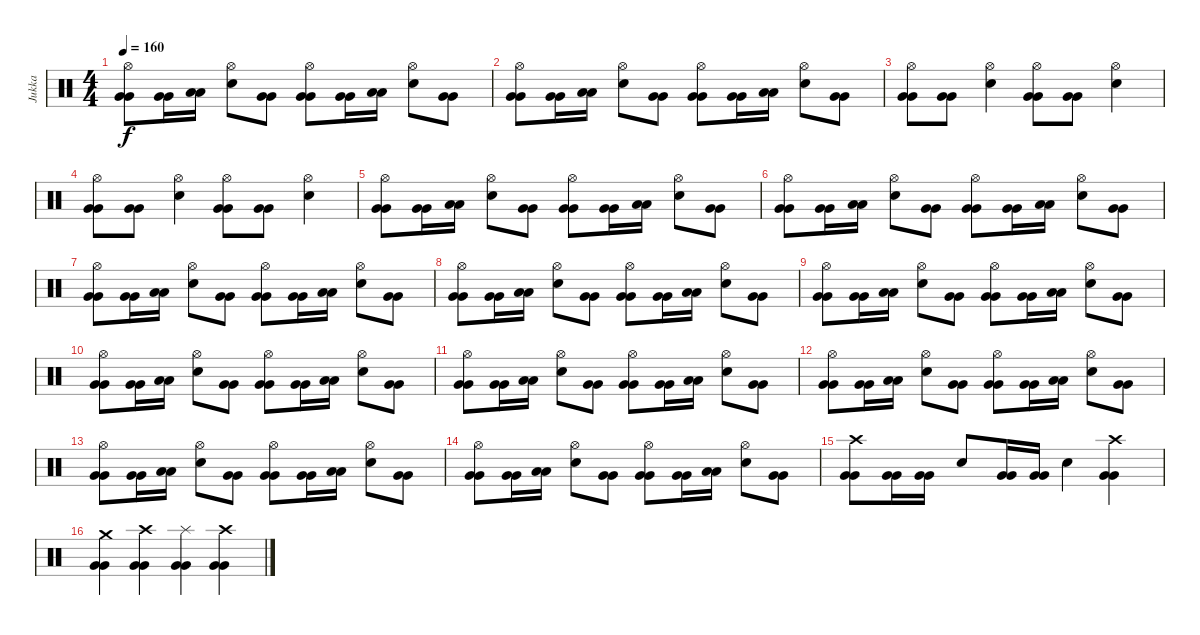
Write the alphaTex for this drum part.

\track ("Jukka" "Jukka") {instrument percussion}
\staff {score}
\articulation defaults
\ts (4 4)
\tempo 160
\clef neutral
\ks c
("Hi-Hat (open)" "Very Low Tom (hit)" "Very Low Tom (hit)").8{dy f} ("Very Low Tom (hit)" "Very Low Tom (hit)").16 ("Low Floor Tom (hit)" "Low Floor Tom (hit)").16 ("Hi-Hat (open)" "Electric Snare (hit)").8 ("Very Low Tom (hit)" "Very Low Tom (hit)").8 ("Hi-Hat (open)" "Very Low Tom (hit)" "Very Low Tom (hit)").8 ("Very Low Tom (hit)" "Very Low Tom (hit)").16 ("Low Floor Tom (hit)" "Low Floor Tom (hit)").16 ("Hi-Hat (open)" "Electric Snare (hit)").8 ("Very Low Tom (hit)" "Very Low Tom (hit)").8 |
("Hi-Hat (open)" "Very Low Tom (hit)" "Very Low Tom (hit)").8 ("Very Low Tom (hit)" "Very Low Tom (hit)").16 ("Low Floor Tom (hit)" "Low Floor Tom (hit)").16 ("Hi-Hat (open)" "Electric Snare (hit)").8 ("Very Low Tom (hit)" "Very Low Tom (hit)").8 ("Hi-Hat (open)" "Very Low Tom (hit)" "Very Low Tom (hit)").8 ("Very Low Tom (hit)" "Very Low Tom (hit)").16 ("Low Floor Tom (hit)" "Low Floor Tom (hit)").16 ("Hi-Hat (open)" "Electric Snare (hit)").8 ("Very Low Tom (hit)" "Very Low Tom (hit)").8 |
("Hi-Hat (open)" "Very Low Tom (hit)" "Very Low Tom (hit)").8 ("Very Low Tom (hit)" "Very Low Tom (hit)").8 ("Hi-Hat (open)" "Electric Snare (hit)").4 ("Hi-Hat (open)" "Very Low Tom (hit)" "Very Low Tom (hit)").8 ("Very Low Tom (hit)" "Very Low Tom (hit)").8 ("Hi-Hat (open)" "Electric Snare (hit)").4 |
("Hi-Hat (open)" "Very Low Tom (hit)" "Very Low Tom (hit)").8 ("Very Low Tom (hit)" "Very Low Tom (hit)").8 ("Hi-Hat (open)" "Electric Snare (hit)").4 ("Hi-Hat (open)" "Very Low Tom (hit)" "Very Low Tom (hit)").8 ("Very Low Tom (hit)" "Very Low Tom (hit)").8 ("Hi-Hat (open)" "Electric Snare (hit)").4 |
("Hi-Hat (open)" "Very Low Tom (hit)" "Very Low Tom (hit)").8 ("Very Low Tom (hit)" "Very Low Tom (hit)").16 ("Low Floor Tom (hit)" "Low Floor Tom (hit)").16 ("Hi-Hat (open)" "Electric Snare (hit)").8 ("Very Low Tom (hit)" "Very Low Tom (hit)").8 ("Hi-Hat (open)" "Very Low Tom (hit)" "Very Low Tom (hit)").8 ("Very Low Tom (hit)" "Very Low Tom (hit)").16 ("Low Floor Tom (hit)" "Low Floor Tom (hit)").16 ("Hi-Hat (open)" "Electric Snare (hit)").8 ("Very Low Tom (hit)" "Very Low Tom (hit)").8 |
("Hi-Hat (open)" "Very Low Tom (hit)" "Very Low Tom (hit)").8 ("Very Low Tom (hit)" "Very Low Tom (hit)").16 ("Low Floor Tom (hit)" "Low Floor Tom (hit)").16 ("Hi-Hat (open)" "Electric Snare (hit)").8 ("Very Low Tom (hit)" "Very Low Tom (hit)").8 ("Hi-Hat (open)" "Very Low Tom (hit)" "Very Low Tom (hit)").8 ("Very Low Tom (hit)" "Very Low Tom (hit)").16 ("Low Floor Tom (hit)" "Low Floor Tom (hit)").16 ("Hi-Hat (open)" "Electric Snare (hit)").8 ("Very Low Tom (hit)" "Very Low Tom (hit)").8 |
("Hi-Hat (open)" "Very Low Tom (hit)" "Very Low Tom (hit)").8 ("Very Low Tom (hit)" "Very Low Tom (hit)").16 ("Low Floor Tom (hit)" "Low Floor Tom (hit)").16 ("Hi-Hat (open)" "Electric Snare (hit)").8 ("Very Low Tom (hit)" "Very Low Tom (hit)").8 ("Hi-Hat (open)" "Very Low Tom (hit)" "Very Low Tom (hit)").8 ("Very Low Tom (hit)" "Very Low Tom (hit)").16 ("Low Floor Tom (hit)" "Low Floor Tom (hit)").16 ("Hi-Hat (open)" "Electric Snare (hit)").8 ("Very Low Tom (hit)" "Very Low Tom (hit)").8 |
("Hi-Hat (open)" "Very Low Tom (hit)" "Very Low Tom (hit)").8 ("Very Low Tom (hit)" "Very Low Tom (hit)").16 ("Low Floor Tom (hit)" "Low Floor Tom (hit)").16 ("Hi-Hat (open)" "Electric Snare (hit)").8 ("Very Low Tom (hit)" "Very Low Tom (hit)").8 ("Hi-Hat (open)" "Very Low Tom (hit)" "Very Low Tom (hit)").8 ("Very Low Tom (hit)" "Very Low Tom (hit)").16 ("Low Floor Tom (hit)" "Low Floor Tom (hit)").16 ("Hi-Hat (open)" "Electric Snare (hit)").8 ("Very Low Tom (hit)" "Very Low Tom (hit)").8 |
("Hi-Hat (open)" "Very Low Tom (hit)" "Very Low Tom (hit)").8 ("Very Low Tom (hit)" "Very Low Tom (hit)").16 ("Low Floor Tom (hit)" "Low Floor Tom (hit)").16 ("Hi-Hat (open)" "Electric Snare (hit)").8 ("Very Low Tom (hit)" "Very Low Tom (hit)").8 ("Hi-Hat (open)" "Very Low Tom (hit)" "Very Low Tom (hit)").8 ("Very Low Tom (hit)" "Very Low Tom (hit)").16 ("Low Floor Tom (hit)" "Low Floor Tom (hit)").16 ("Hi-Hat (open)" "Electric Snare (hit)").8 ("Very Low Tom (hit)" "Very Low Tom (hit)").8 |
("Hi-Hat (open)" "Very Low Tom (hit)" "Very Low Tom (hit)").8 ("Very Low Tom (hit)" "Very Low Tom (hit)").16 ("Low Floor Tom (hit)" "Low Floor Tom (hit)").16 ("Hi-Hat (open)" "Electric Snare (hit)").8 ("Very Low Tom (hit)" "Very Low Tom (hit)").8 ("Hi-Hat (open)" "Very Low Tom (hit)" "Very Low Tom (hit)").8 ("Very Low Tom (hit)" "Very Low Tom (hit)").16 ("Low Floor Tom (hit)" "Low Floor Tom (hit)").16 ("Hi-Hat (open)" "Electric Snare (hit)").8 ("Very Low Tom (hit)" "Very Low Tom (hit)").8 |
("Hi-Hat (open)" "Very Low Tom (hit)" "Very Low Tom (hit)").8 ("Very Low Tom (hit)" "Very Low Tom (hit)").16 ("Low Floor Tom (hit)" "Low Floor Tom (hit)").16 ("Hi-Hat (open)" "Electric Snare (hit)").8 ("Very Low Tom (hit)" "Very Low Tom (hit)").8 ("Hi-Hat (open)" "Very Low Tom (hit)" "Very Low Tom (hit)").8 ("Very Low Tom (hit)" "Very Low Tom (hit)").16 ("Low Floor Tom (hit)" "Low Floor Tom (hit)").16 ("Hi-Hat (open)" "Electric Snare (hit)").8 ("Very Low Tom (hit)" "Very Low Tom (hit)").8 |
("Hi-Hat (open)" "Very Low Tom (hit)" "Very Low Tom (hit)").8 ("Very Low Tom (hit)" "Very Low Tom (hit)").16 ("Low Floor Tom (hit)" "Low Floor Tom (hit)").16 ("Hi-Hat (open)" "Electric Snare (hit)").8 ("Very Low Tom (hit)" "Very Low Tom (hit)").8 ("Hi-Hat (open)" "Very Low Tom (hit)" "Very Low Tom (hit)").8 ("Very Low Tom (hit)" "Very Low Tom (hit)").16 ("Low Floor Tom (hit)" "Low Floor Tom (hit)").16 ("Hi-Hat (open)" "Electric Snare (hit)").8 ("Very Low Tom (hit)" "Very Low Tom (hit)").8 |
("Hi-Hat (open)" "Very Low Tom (hit)" "Very Low Tom (hit)").8 ("Very Low Tom (hit)" "Very Low Tom (hit)").16 ("Low Floor Tom (hit)" "Low Floor Tom (hit)").16 ("Hi-Hat (open)" "Electric Snare (hit)").8 ("Very Low Tom (hit)" "Very Low Tom (hit)").8 ("Hi-Hat (open)" "Very Low Tom (hit)" "Very Low Tom (hit)").8 ("Very Low Tom (hit)" "Very Low Tom (hit)").16 ("Low Floor Tom (hit)" "Low Floor Tom (hit)").16 ("Hi-Hat (open)" "Electric Snare (hit)").8 ("Very Low Tom (hit)" "Very Low Tom (hit)").8 |
("Hi-Hat (open)" "Very Low Tom (hit)" "Very Low Tom (hit)").8 ("Very Low Tom (hit)" "Very Low Tom (hit)").16 ("Low Floor Tom (hit)" "Low Floor Tom (hit)").16 ("Electric Snare (hit)" "Hi-Hat (open)").8 ("Very Low Tom (hit)" "Very Low Tom (hit)").8 ("Hi-Hat (open)" "Very Low Tom (hit)" "Very Low Tom (hit)").8 ("Very Low Tom (hit)" "Very Low Tom (hit)").16 ("Low Floor Tom (hit)" "Low Floor Tom (hit)").16 ("Electric Snare (hit)" "Hi-Hat (open)").8 ("Very Low Tom (hit)" "Very Low Tom (hit)").8 |
("Crash high (hit)" "Very Low Tom (hit)" "Very Low Tom (hit)").8 ("Very Low Tom (hit)" "Very Low Tom (hit)").16 ("Very Low Tom (hit)" "Very Low Tom (hit)").16 "Electric Snare (hit)".8 ("Very Low Tom (hit)" "Very Low Tom (hit)").16 ("Very Low Tom (hit)" "Very Low Tom (hit)").16 "Electric Snare (hit)".4 ("Crash high (hit)" "Very Low Tom (hit)" "Very Low Tom (hit)").4 |
("Crash medium (hit)" "Very Low Tom (hit)" "Very Low Tom (hit)").4 ("Crash high (hit)" "Very Low Tom (hit)" "Very Low Tom (hit)").4 ("Splash (hit)" "Very Low Tom (hit)" "Very Low Tom (hit)").4 ("Crash high (hit)" "Very Low Tom (hit)" "Very Low Tom (hit)").4
